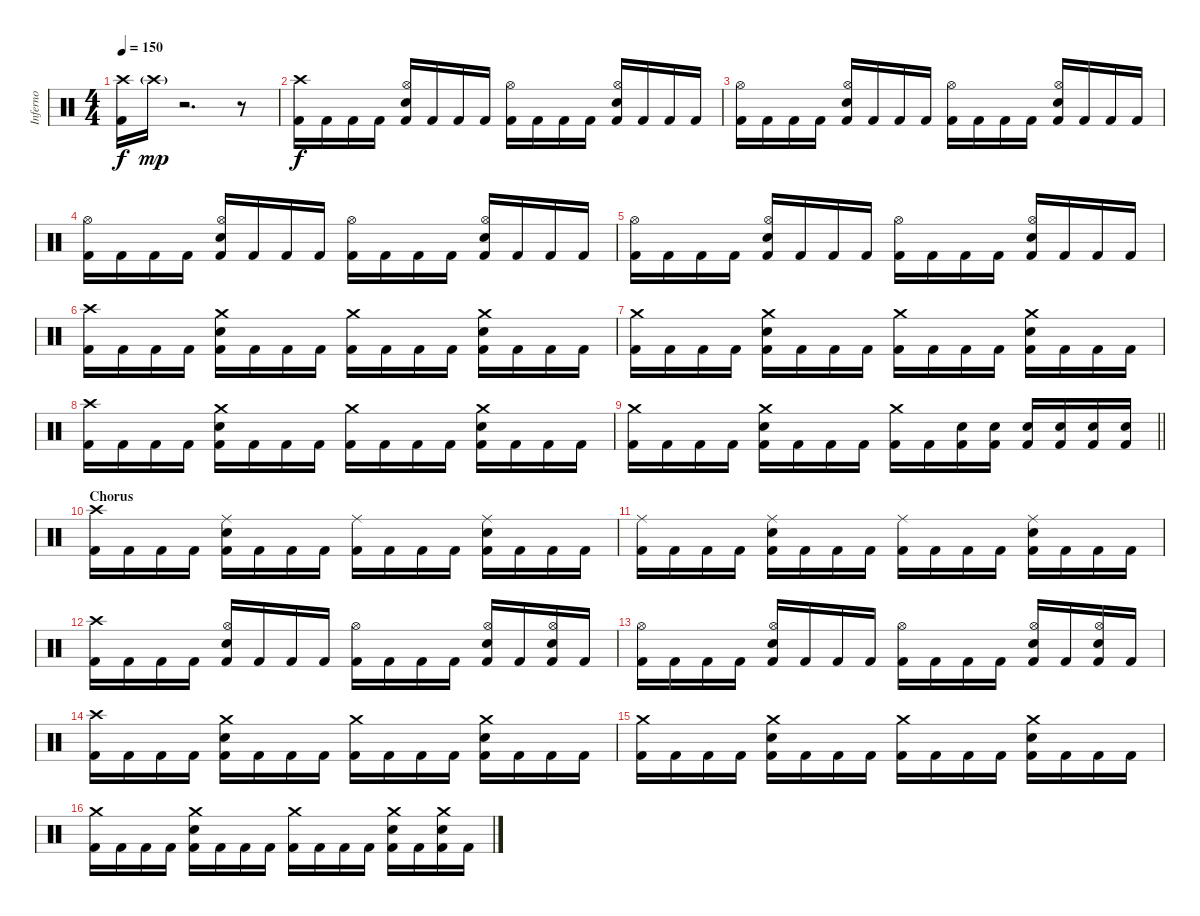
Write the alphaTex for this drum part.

\track ("Inferno" "Inferno") {instrument percussion}
\staff {score}
\articulation defaults
\ts (4 4)
\tempo 150
\clef neutral
\ks c
("Crash high (hit)" "Kick (hit) 2").16{dy f} "Crash high (hit)"{g}.16{dy mp} r.2{d} r.8 |
("Crash high (hit)" "Kick (hit) 2").16{dy f} "Kick (hit) 2".16 "Kick (hit) 2".16 "Kick (hit) 2".16 ("Hi-Hat (open)" "Electric Snare (hit)" "Kick (hit) 2").16 "Kick (hit) 2".16 "Kick (hit) 2".16 "Kick (hit) 2".16 ("Hi-Hat (open)" "Kick (hit) 2").16 "Kick (hit) 2".16 "Kick (hit) 2".16 "Kick (hit) 2".16 ("Hi-Hat (open)" "Electric Snare (hit)" "Kick (hit) 2").16 "Kick (hit) 2".16 "Kick (hit) 2".16 "Kick (hit) 2".16 |
("Hi-Hat (open)" "Kick (hit) 2").16 "Kick (hit) 2".16 "Kick (hit) 2".16 "Kick (hit) 2".16 ("Hi-Hat (open)" "Electric Snare (hit)" "Kick (hit) 2").16 "Kick (hit) 2".16 "Kick (hit) 2".16 "Kick (hit) 2".16 ("Hi-Hat (open)" "Kick (hit) 2").16 "Kick (hit) 2".16 "Kick (hit) 2".16 "Kick (hit) 2".16 ("Hi-Hat (open)" "Electric Snare (hit)" "Kick (hit) 2").16 "Kick (hit) 2".16 "Kick (hit) 2".16 "Kick (hit) 2".16 |
("Hi-Hat (open)" "Kick (hit) 2").16 "Kick (hit) 2".16 "Kick (hit) 2".16 "Kick (hit) 2".16 ("Hi-Hat (open)" "Electric Snare (hit)" "Kick (hit) 2").16 "Kick (hit) 2".16 "Kick (hit) 2".16 "Kick (hit) 2".16 ("Hi-Hat (open)" "Kick (hit) 2").16 "Kick (hit) 2".16 "Kick (hit) 2".16 "Kick (hit) 2".16 ("Hi-Hat (open)" "Electric Snare (hit)" "Kick (hit) 2").16 "Kick (hit) 2".16 "Kick (hit) 2".16 "Kick (hit) 2".16 |
("Hi-Hat (open)" "Kick (hit) 2").16 "Kick (hit) 2".16 "Kick (hit) 2".16 "Kick (hit) 2".16 ("Hi-Hat (open)" "Electric Snare (hit)" "Kick (hit) 2").16 "Kick (hit) 2".16 "Kick (hit) 2".16 "Kick (hit) 2".16 ("Hi-Hat (open)" "Kick (hit) 2").16 "Kick (hit) 2".16 "Kick (hit) 2".16 "Kick (hit) 2".16 ("Hi-Hat (open)" "Electric Snare (hit)" "Kick (hit) 2").16 "Kick (hit) 2".16 "Kick (hit) 2".16 "Kick (hit) 2".16 |
("Crash high (hit)" "Kick (hit) 2").16 "Kick (hit) 2".16 "Kick (hit) 2".16 "Kick (hit) 2".16 ("Crash medium (hit)" "Electric Snare (hit)" "Kick (hit) 2").16 "Kick (hit) 2".16 "Kick (hit) 2".16 "Kick (hit) 2".16 ("Crash medium (hit)" "Kick (hit) 2").16 "Kick (hit) 2".16 "Kick (hit) 2".16 "Kick (hit) 2".16 ("Crash medium (hit)" "Electric Snare (hit)" "Kick (hit) 2").16 "Kick (hit) 2".16 "Kick (hit) 2".16 "Kick (hit) 2".16 |
("Crash medium (hit)" "Kick (hit) 2").16 "Kick (hit) 2".16 "Kick (hit) 2".16 "Kick (hit) 2".16 ("Crash medium (hit)" "Electric Snare (hit)" "Kick (hit) 2").16 "Kick (hit) 2".16 "Kick (hit) 2".16 "Kick (hit) 2".16 ("Crash medium (hit)" "Kick (hit) 2").16 "Kick (hit) 2".16 "Kick (hit) 2".16 "Kick (hit) 2".16 ("Crash medium (hit)" "Electric Snare (hit)" "Kick (hit) 2").16 "Kick (hit) 2".16 "Kick (hit) 2".16 "Kick (hit) 2".16 |
("Crash high (hit)" "Kick (hit) 2").16 "Kick (hit) 2".16 "Kick (hit) 2".16 "Kick (hit) 2".16 ("Crash medium (hit)" "Electric Snare (hit)" "Kick (hit) 2").16 "Kick (hit) 2".16 "Kick (hit) 2".16 "Kick (hit) 2".16 ("Crash medium (hit)" "Kick (hit) 2").16 "Kick (hit) 2".16 "Kick (hit) 2".16 "Kick (hit) 2".16 ("Crash medium (hit)" "Electric Snare (hit)" "Kick (hit) 2").16 "Kick (hit) 2".16 "Kick (hit) 2".16 "Kick (hit) 2".16 |
\barLineRight lightlight
("Crash medium (hit)" "Kick (hit) 2").16 "Kick (hit) 2".16 "Kick (hit) 2".16 "Kick (hit) 2".16 ("Crash medium (hit)" "Electric Snare (hit)" "Kick (hit) 2").16 "Kick (hit) 2".16 "Kick (hit) 2".16 "Kick (hit) 2".16 ("Crash medium (hit)" "Kick (hit) 2").16 "Kick (hit) 2".16 ("Electric Snare (hit)" "Kick (hit) 2").16 ("Electric Snare (hit)" "Kick (hit) 2").16 ("Electric Snare (hit)" "Kick (hit) 2").16 ("Electric Snare (hit)" "Kick (hit) 2").16 ("Electric Snare (hit)" "Kick (hit) 2").16 ("Electric Snare (hit)" "Kick (hit) 2").16 |
\section ("" "Chorus")
("Crash high (hit)" "Kick (hit) 2").16 "Kick (hit) 2".16 "Kick (hit) 2".16 "Kick (hit) 2".16 ("Ride (middle)" "Electric Snare (hit)" "Kick (hit) 2").16 "Kick (hit) 2".16 "Kick (hit) 2".16 "Kick (hit) 2".16 ("Ride (middle)" "Kick (hit) 2").16 "Kick (hit) 2".16 "Kick (hit) 2".16 "Kick (hit) 2".16 ("Ride (middle)" "Electric Snare (hit)" "Kick (hit) 2").16 "Kick (hit) 2".16 "Kick (hit) 2".16 "Kick (hit) 2".16 |
("Ride (middle)" "Kick (hit) 2").16 "Kick (hit) 2".16 "Kick (hit) 2".16 "Kick (hit) 2".16 ("Ride (middle)" "Electric Snare (hit)" "Kick (hit) 2").16 "Kick (hit) 2".16 "Kick (hit) 2".16 "Kick (hit) 2".16 ("Ride (middle)" "Kick (hit) 2").16 "Kick (hit) 2".16 "Kick (hit) 2".16 "Kick (hit) 2".16 ("Ride (middle)" "Electric Snare (hit)" "Kick (hit) 2").16 "Kick (hit) 2".16 "Kick (hit) 2".16 "Kick (hit) 2".16 |
("Crash high (hit)" "Kick (hit) 2").16 "Kick (hit) 2".16 "Kick (hit) 2".16 "Kick (hit) 2".16 ("Hi-Hat (open)" "Electric Snare (hit)" "Kick (hit) 2").16 "Kick (hit) 2".16 "Kick (hit) 2".16 "Kick (hit) 2".16 ("Hi-Hat (open)" "Kick (hit) 2").16 "Kick (hit) 2".16 "Kick (hit) 2".16 "Kick (hit) 2".16 ("Hi-Hat (open)" "Electric Snare (hit)" "Kick (hit) 2").16 "Kick (hit) 2".16 ("Hi-Hat (open)" "Electric Snare (hit)" "Kick (hit) 2").16 "Kick (hit) 2".16 |
("Hi-Hat (open)" "Kick (hit) 2").16 "Kick (hit) 2".16 "Kick (hit) 2".16 "Kick (hit) 2".16 ("Hi-Hat (open)" "Electric Snare (hit)" "Kick (hit) 2").16 "Kick (hit) 2".16 "Kick (hit) 2".16 "Kick (hit) 2".16 ("Hi-Hat (open)" "Kick (hit) 2").16 "Kick (hit) 2".16 "Kick (hit) 2".16 "Kick (hit) 2".16 ("Hi-Hat (open)" "Electric Snare (hit)" "Kick (hit) 2").16 "Kick (hit) 2".16 ("Hi-Hat (open)" "Electric Snare (hit)" "Kick (hit) 2").16 "Kick (hit) 2".16 |
("Crash high (hit)" "Kick (hit) 2").16 "Kick (hit) 2".16 "Kick (hit) 2".16 "Kick (hit) 2".16 ("Crash medium (hit)" "Electric Snare (hit)" "Kick (hit) 2").16 "Kick (hit) 2".16 "Kick (hit) 2".16 "Kick (hit) 2".16 ("Crash medium (hit)" "Kick (hit) 2").16 "Kick (hit) 2".16 "Kick (hit) 2".16 "Kick (hit) 2".16 ("Crash medium (hit)" "Electric Snare (hit)" "Kick (hit) 2").16 "Kick (hit) 2".16 "Kick (hit) 2".16 "Kick (hit) 2".16 |
("Crash medium (hit)" "Kick (hit) 2").16 "Kick (hit) 2".16 "Kick (hit) 2".16 "Kick (hit) 2".16 ("Crash medium (hit)" "Electric Snare (hit)" "Kick (hit) 2").16 "Kick (hit) 2".16 "Kick (hit) 2".16 "Kick (hit) 2".16 ("Crash medium (hit)" "Kick (hit) 2").16 "Kick (hit) 2".16 "Kick (hit) 2".16 "Kick (hit) 2".16 ("Crash medium (hit)" "Electric Snare (hit)" "Kick (hit) 2").16 "Kick (hit) 2".16 "Kick (hit) 2".16 "Kick (hit) 2".16 |
("Crash medium (hit)" "Kick (hit) 2").16 "Kick (hit) 2".16 "Kick (hit) 2".16 "Kick (hit) 2".16 ("Crash medium (hit)" "Electric Snare (hit)" "Kick (hit) 2").16 "Kick (hit) 2".16 "Kick (hit) 2".16 "Kick (hit) 2".16 ("Crash medium (hit)" "Kick (hit) 2").16 "Kick (hit) 2".16 "Kick (hit) 2".16 "Kick (hit) 2".16 ("Crash medium (hit)" "Electric Snare (hit)" "Kick (hit) 2").16 "Kick (hit) 2".16 ("Crash medium (hit)" "Electric Snare (hit)" "Kick (hit) 2").16 "Kick (hit) 2".16
